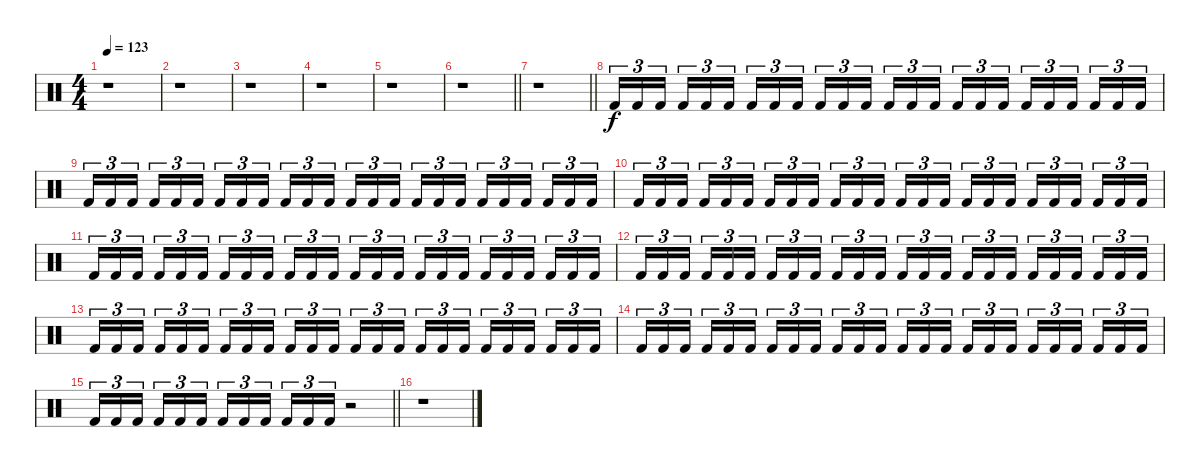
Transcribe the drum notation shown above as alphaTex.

\track "" {instrument percussion}
\staff {score}
\articulation defaults
\ts (4 4)
\tempo 123
\clef neutral
\ks c
r.1{dy f} |
r.1 |
r.1 |
r.1 |
r.1 |
\barLineRight lightlight
r.1 |
\barLineRight lightlight
r.1 |
"Kick (hit) 2".16{tu (3 2)} "Kick (hit) 2".16{tu (3 2)} "Kick (hit) 2".16{tu (3 2) beam splitsecondary} "Kick (hit) 2".16{tu (3 2)} "Kick (hit) 2".16{tu (3 2)} "Kick (hit) 2".16{tu (3 2)} "Kick (hit) 2".16{tu (3 2)} "Kick (hit) 2".16{tu (3 2)} "Kick (hit) 2".16{tu (3 2) beam splitsecondary} "Kick (hit) 2".16{tu (3 2)} "Kick (hit) 2".16{tu (3 2)} "Kick (hit) 2".16{tu (3 2)} "Kick (hit) 2".16{tu (3 2)} "Kick (hit) 2".16{tu (3 2)} "Kick (hit) 2".16{tu (3 2) beam splitsecondary} "Kick (hit) 2".16{tu (3 2)} "Kick (hit) 2".16{tu (3 2)} "Kick (hit) 2".16{tu (3 2)} "Kick (hit) 2".16{tu (3 2)} "Kick (hit) 2".16{tu (3 2)} "Kick (hit) 2".16{tu (3 2) beam splitsecondary} "Kick (hit) 2".16{tu (3 2)} "Kick (hit) 2".16{tu (3 2)} "Kick (hit) 2".16{tu (3 2)} |
"Kick (hit) 2".16{tu (3 2)} "Kick (hit) 2".16{tu (3 2)} "Kick (hit) 2".16{tu (3 2) beam splitsecondary} "Kick (hit) 2".16{tu (3 2)} "Kick (hit) 2".16{tu (3 2)} "Kick (hit) 2".16{tu (3 2)} "Kick (hit) 2".16{tu (3 2)} "Kick (hit) 2".16{tu (3 2)} "Kick (hit) 2".16{tu (3 2) beam splitsecondary} "Kick (hit) 2".16{tu (3 2)} "Kick (hit) 2".16{tu (3 2)} "Kick (hit) 2".16{tu (3 2)} "Kick (hit) 2".16{tu (3 2)} "Kick (hit) 2".16{tu (3 2)} "Kick (hit) 2".16{tu (3 2) beam splitsecondary} "Kick (hit) 2".16{tu (3 2)} "Kick (hit) 2".16{tu (3 2)} "Kick (hit) 2".16{tu (3 2)} "Kick (hit) 2".16{tu (3 2)} "Kick (hit) 2".16{tu (3 2)} "Kick (hit) 2".16{tu (3 2) beam splitsecondary} "Kick (hit) 2".16{tu (3 2)} "Kick (hit) 2".16{tu (3 2)} "Kick (hit) 2".16{tu (3 2)} |
"Kick (hit) 2".16{tu (3 2)} "Kick (hit) 2".16{tu (3 2)} "Kick (hit) 2".16{tu (3 2) beam splitsecondary} "Kick (hit) 2".16{tu (3 2)} "Kick (hit) 2".16{tu (3 2)} "Kick (hit) 2".16{tu (3 2)} "Kick (hit) 2".16{tu (3 2)} "Kick (hit) 2".16{tu (3 2)} "Kick (hit) 2".16{tu (3 2) beam splitsecondary} "Kick (hit) 2".16{tu (3 2)} "Kick (hit) 2".16{tu (3 2)} "Kick (hit) 2".16{tu (3 2)} "Kick (hit) 2".16{tu (3 2)} "Kick (hit) 2".16{tu (3 2)} "Kick (hit) 2".16{tu (3 2) beam splitsecondary} "Kick (hit) 2".16{tu (3 2)} "Kick (hit) 2".16{tu (3 2)} "Kick (hit) 2".16{tu (3 2)} "Kick (hit) 2".16{tu (3 2)} "Kick (hit) 2".16{tu (3 2)} "Kick (hit) 2".16{tu (3 2) beam splitsecondary} "Kick (hit) 2".16{tu (3 2)} "Kick (hit) 2".16{tu (3 2)} "Kick (hit) 2".16{tu (3 2)} |
"Kick (hit) 2".16{tu (3 2)} "Kick (hit) 2".16{tu (3 2)} "Kick (hit) 2".16{tu (3 2) beam splitsecondary} "Kick (hit) 2".16{tu (3 2)} "Kick (hit) 2".16{tu (3 2)} "Kick (hit) 2".16{tu (3 2)} "Kick (hit) 2".16{tu (3 2)} "Kick (hit) 2".16{tu (3 2)} "Kick (hit) 2".16{tu (3 2) beam splitsecondary} "Kick (hit) 2".16{tu (3 2)} "Kick (hit) 2".16{tu (3 2)} "Kick (hit) 2".16{tu (3 2)} "Kick (hit) 2".16{tu (3 2)} "Kick (hit) 2".16{tu (3 2)} "Kick (hit) 2".16{tu (3 2) beam splitsecondary} "Kick (hit) 2".16{tu (3 2)} "Kick (hit) 2".16{tu (3 2)} "Kick (hit) 2".16{tu (3 2)} "Kick (hit) 2".16{tu (3 2)} "Kick (hit) 2".16{tu (3 2)} "Kick (hit) 2".16{tu (3 2) beam splitsecondary} "Kick (hit) 2".16{tu (3 2)} "Kick (hit) 2".16{tu (3 2)} "Kick (hit) 2".16{tu (3 2)} |
"Kick (hit) 2".16{tu (3 2)} "Kick (hit) 2".16{tu (3 2)} "Kick (hit) 2".16{tu (3 2) beam splitsecondary} "Kick (hit) 2".16{tu (3 2)} "Kick (hit) 2".16{tu (3 2)} "Kick (hit) 2".16{tu (3 2)} "Kick (hit) 2".16{tu (3 2)} "Kick (hit) 2".16{tu (3 2)} "Kick (hit) 2".16{tu (3 2) beam splitsecondary} "Kick (hit) 2".16{tu (3 2)} "Kick (hit) 2".16{tu (3 2)} "Kick (hit) 2".16{tu (3 2)} "Kick (hit) 2".16{tu (3 2)} "Kick (hit) 2".16{tu (3 2)} "Kick (hit) 2".16{tu (3 2) beam splitsecondary} "Kick (hit) 2".16{tu (3 2)} "Kick (hit) 2".16{tu (3 2)} "Kick (hit) 2".16{tu (3 2)} "Kick (hit) 2".16{tu (3 2)} "Kick (hit) 2".16{tu (3 2)} "Kick (hit) 2".16{tu (3 2) beam splitsecondary} "Kick (hit) 2".16{tu (3 2)} "Kick (hit) 2".16{tu (3 2)} "Kick (hit) 2".16{tu (3 2)} |
"Kick (hit) 2".16{tu (3 2)} "Kick (hit) 2".16{tu (3 2)} "Kick (hit) 2".16{tu (3 2) beam splitsecondary} "Kick (hit) 2".16{tu (3 2)} "Kick (hit) 2".16{tu (3 2)} "Kick (hit) 2".16{tu (3 2)} "Kick (hit) 2".16{tu (3 2)} "Kick (hit) 2".16{tu (3 2)} "Kick (hit) 2".16{tu (3 2) beam splitsecondary} "Kick (hit) 2".16{tu (3 2)} "Kick (hit) 2".16{tu (3 2)} "Kick (hit) 2".16{tu (3 2)} "Kick (hit) 2".16{tu (3 2)} "Kick (hit) 2".16{tu (3 2)} "Kick (hit) 2".16{tu (3 2) beam splitsecondary} "Kick (hit) 2".16{tu (3 2)} "Kick (hit) 2".16{tu (3 2)} "Kick (hit) 2".16{tu (3 2)} "Kick (hit) 2".16{tu (3 2)} "Kick (hit) 2".16{tu (3 2)} "Kick (hit) 2".16{tu (3 2) beam splitsecondary} "Kick (hit) 2".16{tu (3 2)} "Kick (hit) 2".16{tu (3 2)} "Kick (hit) 2".16{tu (3 2)} |
"Kick (hit) 2".16{tu (3 2)} "Kick (hit) 2".16{tu (3 2)} "Kick (hit) 2".16{tu (3 2) beam splitsecondary} "Kick (hit) 2".16{tu (3 2)} "Kick (hit) 2".16{tu (3 2)} "Kick (hit) 2".16{tu (3 2)} "Kick (hit) 2".16{tu (3 2)} "Kick (hit) 2".16{tu (3 2)} "Kick (hit) 2".16{tu (3 2) beam splitsecondary} "Kick (hit) 2".16{tu (3 2)} "Kick (hit) 2".16{tu (3 2)} "Kick (hit) 2".16{tu (3 2)} "Kick (hit) 2".16{tu (3 2)} "Kick (hit) 2".16{tu (3 2)} "Kick (hit) 2".16{tu (3 2) beam splitsecondary} "Kick (hit) 2".16{tu (3 2)} "Kick (hit) 2".16{tu (3 2)} "Kick (hit) 2".16{tu (3 2)} "Kick (hit) 2".16{tu (3 2)} "Kick (hit) 2".16{tu (3 2)} "Kick (hit) 2".16{tu (3 2) beam splitsecondary} "Kick (hit) 2".16{tu (3 2)} "Kick (hit) 2".16{tu (3 2)} "Kick (hit) 2".16{tu (3 2)} |
\barLineRight lightlight "Kick (hit) 2".16{tu (3 2)} "Kick (hit) 2".16{tu (3 2)} "Kick (hit) 2".16{tu (3 2) beam splitsecondary} "Kick (hit) 2".16{tu (3 2)} "Kick (hit) 2".16{tu (3 2)} "Kick (hit) 2".16{tu (3 2)} "Kick (hit) 2".16{tu (3 2)} "Kick (hit) 2".16{tu (3 2)} "Kick (hit) 2".16{tu (3 2) beam splitsecondary} "Kick (hit) 2".16{tu (3 2)} "Kick (hit) 2".16{tu (3 2)} "Kick (hit) 2".16{tu (3 2)}
r.2 |
r.1
